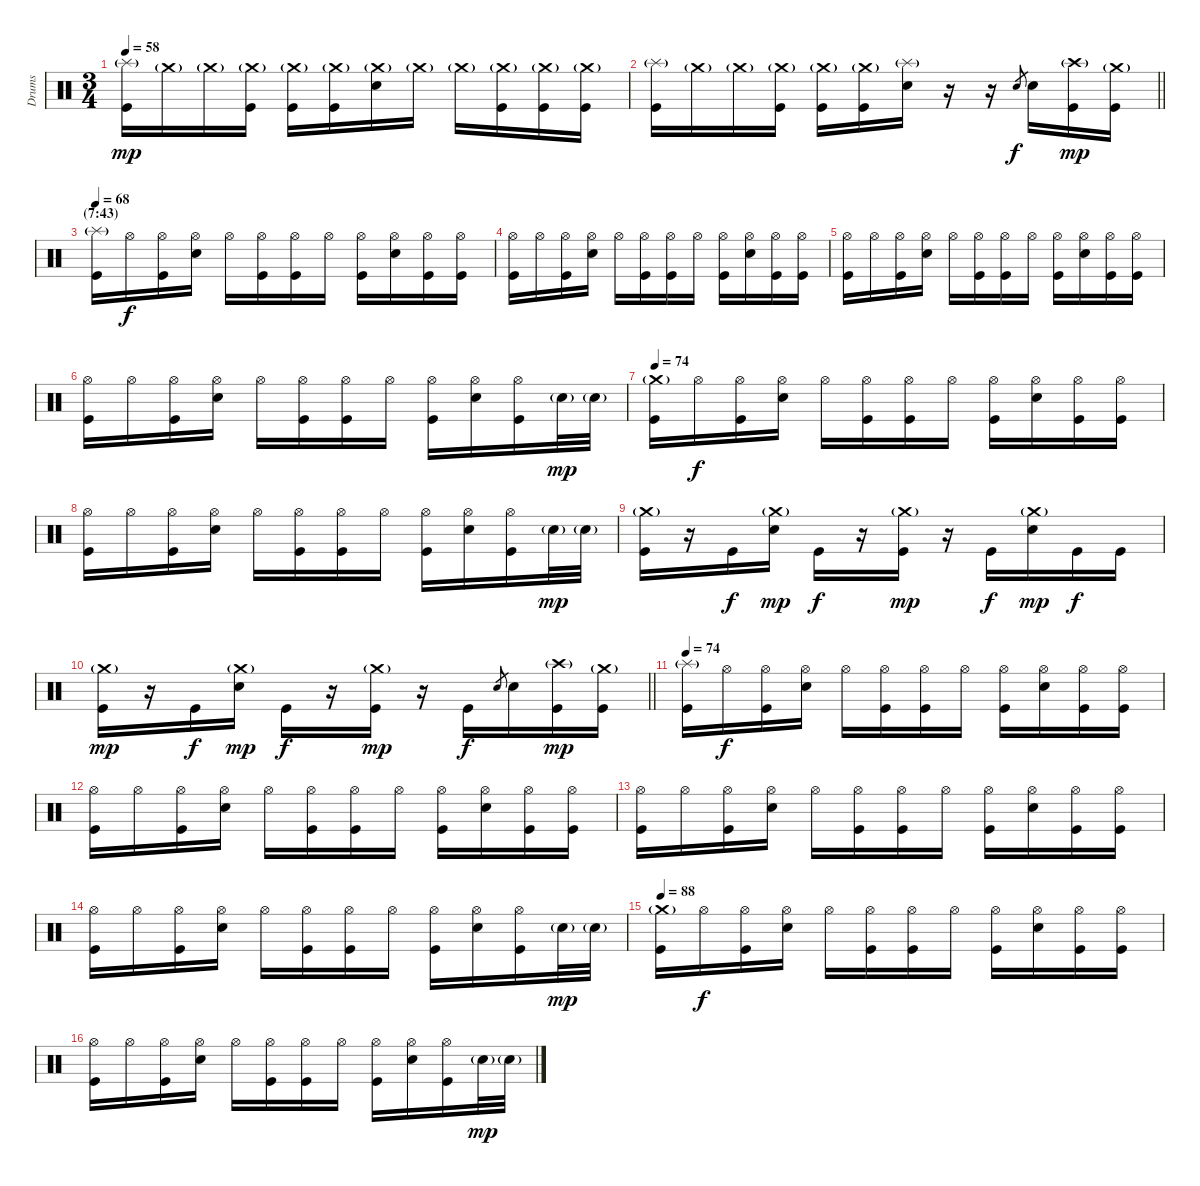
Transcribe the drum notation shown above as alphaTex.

\track ("Drums" "Drums") {instrument percussion}
\staff {score}
\articulation defaults
\ts (3 4)
\tempo 58
\clef neutral
\ks c
("Splash (hit)"{g} "Kick (hit)").16{dy mp} "Crash medium (hit)"{g}.16 "Crash medium (hit)"{g}.16 ("Crash medium (hit)"{g} "Kick (hit)").16 ("Crash medium (hit)"{g} "Kick (hit)").16 ("Crash medium (hit)"{g} "Kick (hit)").16 ("Crash medium (hit)"{g} "Snare (hit) 2").16 "Crash medium (hit)"{g}.16 "Crash medium (hit)"{g}.16 ("Crash medium (hit)"{g} "Kick (hit)").16 ("Crash medium (hit)"{g} "Kick (hit)").16 ("Crash medium (hit)"{g} "Kick (hit)").16 |
\barLineRight lightlight
("Splash (hit)"{g} "Kick (hit)").16 "Crash medium (hit)"{g}.16 "Crash medium (hit)"{g}.16 ("Crash medium (hit)"{g} "Kick (hit)").16 ("Crash medium (hit)"{g} "Kick (hit)").16 ("Crash medium (hit)"{g} "Kick (hit)").16 ("Splash (hit)"{g} "Snare (hit) 2").16 r.16 r.16 "Snare (hit) 2".8{gr dy f} "Snare (hit) 2".16 ("Crash high (hit)"{g} "Kick (hit)").16{dy mp} ("Crash medium (hit)"{g} "Kick (hit)").16 |
\section ("" "(7:43)")
\tempo 68
("Splash (hit)"{g} "Kick (hit)").16 "Hi-Hat (open)".16{dy f} ("Hi-Hat (open)" "Kick (hit)").16 ("Hi-Hat (open)" "Snare (hit) 2").16 "Hi-Hat (open)".16 ("Hi-Hat (open)" "Kick (hit)").16 ("Hi-Hat (open)" "Kick (hit)").16 "Hi-Hat (open)".16 ("Hi-Hat (open)" "Kick (hit)").16 ("Hi-Hat (open)" "Snare (hit) 2").16 ("Hi-Hat (open)" "Kick (hit)").16 ("Hi-Hat (open)" "Kick (hit)").16 |
("Hi-Hat (open)" "Kick (hit)").16 "Hi-Hat (open)".16 ("Hi-Hat (open)" "Kick (hit)").16 ("Hi-Hat (open)" "Snare (hit) 2").16 "Hi-Hat (open)".16 ("Hi-Hat (open)" "Kick (hit)").16 ("Hi-Hat (open)" "Kick (hit)").16 "Hi-Hat (open)".16 ("Hi-Hat (open)" "Kick (hit)").16 ("Hi-Hat (open)" "Snare (hit) 2").16 ("Hi-Hat (open)" "Kick (hit)").16 ("Hi-Hat (open)" "Kick (hit)").16 |
("Hi-Hat (open)" "Kick (hit)").16 "Hi-Hat (open)".16 ("Hi-Hat (open)" "Kick (hit)").16 ("Hi-Hat (open)" "Snare (hit) 2").16 "Hi-Hat (open)".16 ("Hi-Hat (open)" "Kick (hit)").16 ("Hi-Hat (open)" "Kick (hit)").16 "Hi-Hat (open)".16 ("Hi-Hat (open)" "Kick (hit)").16 ("Hi-Hat (open)" "Snare (hit) 2").16 ("Hi-Hat (open)" "Kick (hit)").16 ("Hi-Hat (open)" "Kick (hit)").16 |
("Hi-Hat (open)" "Kick (hit)").16 "Hi-Hat (open)".16 ("Hi-Hat (open)" "Kick (hit)").16 ("Hi-Hat (open)" "Snare (hit) 2").16 "Hi-Hat (open)".16 ("Hi-Hat (open)" "Kick (hit)").16 ("Hi-Hat (open)" "Kick (hit)").16 "Hi-Hat (open)".16 ("Hi-Hat (open)" "Kick (hit)").16 ("Hi-Hat (open)" "Snare (hit) 2").16 ("Hi-Hat (open)" "Kick (hit)").16 "Snare (hit) 2"{g}.32{dy mp} "Snare (hit) 2"{g}.32 |
\tempo 74
("Crash medium (hit)"{g} "Kick (hit)").16 "Hi-Hat (open)".16{dy f} ("Hi-Hat (open)" "Kick (hit)").16 ("Hi-Hat (open)" "Snare (hit) 2").16 "Hi-Hat (open)".16 ("Hi-Hat (open)" "Kick (hit)").16 ("Hi-Hat (open)" "Kick (hit)").16 "Hi-Hat (open)".16 ("Hi-Hat (open)" "Kick (hit)").16 ("Hi-Hat (open)" "Snare (hit) 2").16 ("Hi-Hat (open)" "Kick (hit)").16 ("Hi-Hat (open)" "Kick (hit)").16 |
("Hi-Hat (open)" "Kick (hit)").16 "Hi-Hat (open)".16 ("Hi-Hat (open)" "Kick (hit)").16 ("Hi-Hat (open)" "Snare (hit) 2").16 "Hi-Hat (open)".16 ("Hi-Hat (open)" "Kick (hit)").16 ("Hi-Hat (open)" "Kick (hit)").16 "Hi-Hat (open)".16 ("Hi-Hat (open)" "Kick (hit)").16 ("Hi-Hat (open)" "Snare (hit) 2").16 ("Hi-Hat (open)" "Kick (hit)").16 "Snare (hit) 2"{g}.32{dy mp} "Snare (hit) 2"{g}.32 |
("Crash medium (hit)"{g} "Kick (hit)").16 r.16 "Kick (hit)".16{dy f} ("Crash medium (hit)"{g} "Snare (hit) 2").16{dy mp} "Kick (hit)".16{dy f} r.16 ("Crash medium (hit)"{g} "Kick (hit)").16{dy mp} r.16 "Kick (hit)".16{dy f} ("Crash medium (hit)"{g} "Snare (hit) 2").16{dy mp} "Kick (hit)".16{dy f} "Kick (hit)".16 |
\barLineRight lightlight
("Crash medium (hit)"{g} "Kick (hit)").16{dy mp} r.16 "Kick (hit)".16{dy f} ("Crash medium (hit)"{g} "Snare (hit) 2").16{dy mp} "Kick (hit)".16{dy f} r.16 ("Crash medium (hit)"{g} "Kick (hit)").16{dy mp} r.16 "Kick (hit)".16{dy f} "Snare (hit) 2".8{gr} "Snare (hit) 2".16 ("Crash high (hit)"{g} "Kick (hit)").16{dy mp} ("Crash medium (hit)"{g} "Kick (hit)").16 |
\tempo 74
("Splash (hit)"{g} "Kick (hit)").16 "Hi-Hat (open)".16{dy f} ("Hi-Hat (open)" "Kick (hit)").16 ("Hi-Hat (open)" "Snare (hit) 2").16 "Hi-Hat (open)".16 ("Hi-Hat (open)" "Kick (hit)").16 ("Hi-Hat (open)" "Kick (hit)").16 "Hi-Hat (open)".16 ("Hi-Hat (open)" "Kick (hit)").16 ("Hi-Hat (open)" "Snare (hit) 2").16 ("Hi-Hat (open)" "Kick (hit)").16 ("Hi-Hat (open)" "Kick (hit)").16 |
("Hi-Hat (open)" "Kick (hit)").16 "Hi-Hat (open)".16 ("Hi-Hat (open)" "Kick (hit)").16 ("Hi-Hat (open)" "Snare (hit) 2").16 "Hi-Hat (open)".16 ("Hi-Hat (open)" "Kick (hit)").16 ("Hi-Hat (open)" "Kick (hit)").16 "Hi-Hat (open)".16 ("Hi-Hat (open)" "Kick (hit)").16 ("Hi-Hat (open)" "Snare (hit) 2").16 ("Hi-Hat (open)" "Kick (hit)").16 ("Hi-Hat (open)" "Kick (hit)").16 |
("Hi-Hat (open)" "Kick (hit)").16 "Hi-Hat (open)".16 ("Hi-Hat (open)" "Kick (hit)").16 ("Hi-Hat (open)" "Snare (hit) 2").16 "Hi-Hat (open)".16 ("Hi-Hat (open)" "Kick (hit)").16 ("Hi-Hat (open)" "Kick (hit)").16 "Hi-Hat (open)".16 ("Hi-Hat (open)" "Kick (hit)").16 ("Hi-Hat (open)" "Snare (hit) 2").16 ("Hi-Hat (open)" "Kick (hit)").16 ("Hi-Hat (open)" "Kick (hit)").16 |
("Hi-Hat (open)" "Kick (hit)").16 "Hi-Hat (open)".16 ("Hi-Hat (open)" "Kick (hit)").16 ("Hi-Hat (open)" "Snare (hit) 2").16 "Hi-Hat (open)".16 ("Hi-Hat (open)" "Kick (hit)").16 ("Hi-Hat (open)" "Kick (hit)").16 "Hi-Hat (open)".16 ("Hi-Hat (open)" "Kick (hit)").16 ("Hi-Hat (open)" "Snare (hit) 2").16 ("Hi-Hat (open)" "Kick (hit)").16 "Snare (hit) 2"{g}.32{dy mp} "Snare (hit) 2"{g}.32 |
\tempo 88
("Crash medium (hit)"{g} "Kick (hit)").16 "Hi-Hat (open)".16{dy f} ("Hi-Hat (open)" "Kick (hit)").16 ("Hi-Hat (open)" "Snare (hit) 2").16 "Hi-Hat (open)".16 ("Hi-Hat (open)" "Kick (hit)").16 ("Hi-Hat (open)" "Kick (hit)").16 "Hi-Hat (open)".16 ("Hi-Hat (open)" "Kick (hit)").16 ("Hi-Hat (open)" "Snare (hit) 2").16 ("Hi-Hat (open)" "Kick (hit)").16 ("Hi-Hat (open)" "Kick (hit)").16 |
("Hi-Hat (open)" "Kick (hit)").16 "Hi-Hat (open)".16 ("Hi-Hat (open)" "Kick (hit)").16 ("Hi-Hat (open)" "Snare (hit) 2").16 "Hi-Hat (open)".16 ("Hi-Hat (open)" "Kick (hit)").16 ("Hi-Hat (open)" "Kick (hit)").16 "Hi-Hat (open)".16 ("Hi-Hat (open)" "Kick (hit)").16 ("Hi-Hat (open)" "Snare (hit) 2").16 ("Hi-Hat (open)" "Kick (hit)").16 "Snare (hit) 2"{g}.32{dy mp} "Snare (hit) 2"{g}.32
